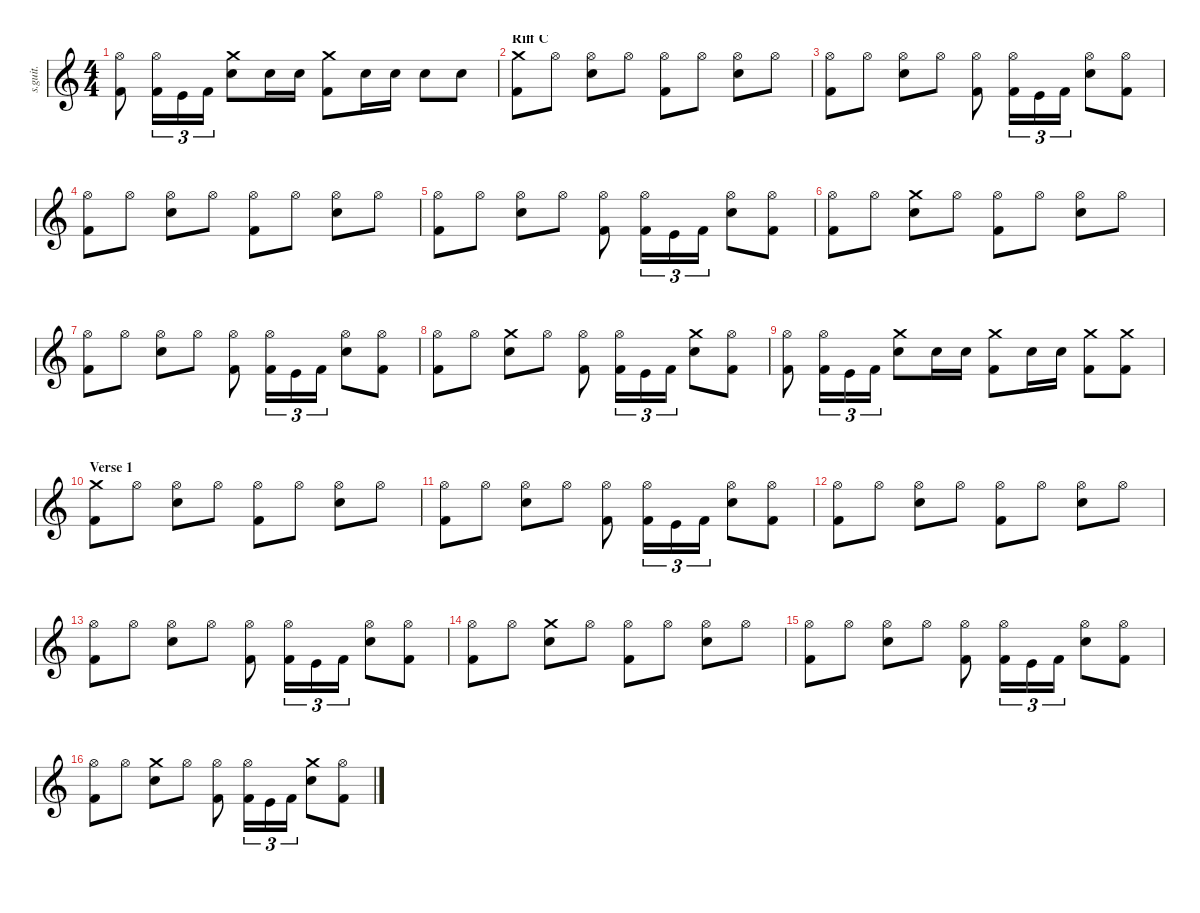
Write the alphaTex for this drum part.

\defaultSystemsLayout 4
\hideDynamics
\bracketExtendMode nobrackets
\track ("Lars Ulrich - Drums" "s.guit.") {instrument percussion}
\staff {score}
\articulation defaults
\ts (4 4)
\tempo (140 hide)
\clef g2
\ks c
("Hi-Hat (open)" "Kick (hit) 2").8{lyrics (0 "") lyrics (1 "") lyrics (2 "") lyrics (3 "") lyrics (4 "") dy f} ("Hi-Hat (open)" "Kick (hit) 2").16{tu (3 2) lyrics (0 "") lyrics (1 "") lyrics (2 "") lyrics (3 "") lyrics (4 "")} "Kick (hit)".16{tu (3 2) lyrics (0 "") lyrics (1 "") lyrics (2 "") lyrics (3 "") lyrics (4 "")} "Kick (hit) 2".16{tu (3 2) lyrics (0 "") lyrics (1 "") lyrics (2 "") lyrics (3 "") lyrics (4 "")} ("Crash medium (hit)" "Snare (hit) 2").8{lyrics (0 "") lyrics (1 "") lyrics (2 "") lyrics (3 "") lyrics (4 "")} "Snare (hit) 2".16{lyrics (0 "") lyrics (1 "") lyrics (2 "") lyrics (3 "") lyrics (4 "")} "Snare (hit) 2".16{lyrics (0 "") lyrics (1 "") lyrics (2 "") lyrics (3 "") lyrics (4 "")} ("Crash medium (hit)" "Kick (hit) 2").8{lyrics (0 "") lyrics (1 "") lyrics (2 "") lyrics (3 "") lyrics (4 "")} "Snare (hit) 2".16{lyrics (0 "") lyrics (1 "") lyrics (2 "") lyrics (3 "") lyrics (4 "")} "Snare (hit) 2".16{lyrics (0 "") lyrics (1 "") lyrics (2 "") lyrics (3 "") lyrics (4 "")} "Snare (hit) 2".8{lyrics (0 "") lyrics (1 "") lyrics (2 "") lyrics (3 "") lyrics (4 "") dy ff} "Snare (hit) 2".8{lyrics (0 "") lyrics (1 "") lyrics (2 "") lyrics (3 "") lyrics (4 "")} |
\section ("" "Riff C")
("Crash medium (hit)" "Kick (hit) 2").8{lyrics (0 "") lyrics (1 "") lyrics (2 "") lyrics (3 "") lyrics (4 "") dy f} "Hi-Hat (open)".8{lyrics (0 "") lyrics (1 "") lyrics (2 "") lyrics (3 "") lyrics (4 "")} ("Hi-Hat (open)" "Snare (hit) 2").8{lyrics (0 "") lyrics (1 "") lyrics (2 "") lyrics (3 "") lyrics (4 "")} "Hi-Hat (open)".8{lyrics (0 "") lyrics (1 "") lyrics (2 "") lyrics (3 "") lyrics (4 "")} ("Hi-Hat (open)" "Kick (hit) 2").8{lyrics (0 "") lyrics (1 "") lyrics (2 "") lyrics (3 "") lyrics (4 "")} "Hi-Hat (open)".8{lyrics (0 "") lyrics (1 "") lyrics (2 "") lyrics (3 "") lyrics (4 "")} ("Hi-Hat (open)" "Snare (hit) 2").8{lyrics (0 "") lyrics (1 "") lyrics (2 "") lyrics (3 "") lyrics (4 "")} "Hi-Hat (open)".8{lyrics (0 "") lyrics (1 "") lyrics (2 "") lyrics (3 "") lyrics (4 "")} |
("Hi-Hat (open)" "Kick (hit) 2").8{lyrics (0 "") lyrics (1 "") lyrics (2 "") lyrics (3 "") lyrics (4 "")} "Hi-Hat (open)".8{lyrics (0 "") lyrics (1 "") lyrics (2 "") lyrics (3 "") lyrics (4 "")} ("Hi-Hat (open)" "Snare (hit) 2").8{lyrics (0 "") lyrics (1 "") lyrics (2 "") lyrics (3 "") lyrics (4 "")} "Hi-Hat (open)".8{lyrics (0 "") lyrics (1 "") lyrics (2 "") lyrics (3 "") lyrics (4 "")} ("Hi-Hat (open)" "Kick (hit) 2").8{lyrics (0 "") lyrics (1 "") lyrics (2 "") lyrics (3 "") lyrics (4 "")} ("Hi-Hat (open)" "Kick (hit) 2").16{tu (3 2) lyrics (0 "") lyrics (1 "") lyrics (2 "") lyrics (3 "") lyrics (4 "")} "Kick (hit)".16{tu (3 2) lyrics (0 "") lyrics (1 "") lyrics (2 "") lyrics (3 "") lyrics (4 "")} "Kick (hit) 2".16{tu (3 2) lyrics (0 "") lyrics (1 "") lyrics (2 "") lyrics (3 "") lyrics (4 "")} ("Hi-Hat (open)" "Snare (hit) 2").8{lyrics (0 "") lyrics (1 "") lyrics (2 "") lyrics (3 "") lyrics (4 "")} ("Hi-Hat (open)" "Kick (hit) 2").8{lyrics (0 "") lyrics (1 "") lyrics (2 "") lyrics (3 "") lyrics (4 "")} |
("Hi-Hat (open)" "Kick (hit) 2").8{lyrics (0 "") lyrics (1 "") lyrics (2 "") lyrics (3 "") lyrics (4 "")} "Hi-Hat (open)".8{lyrics (0 "") lyrics (1 "") lyrics (2 "") lyrics (3 "") lyrics (4 "")} ("Hi-Hat (open)" "Snare (hit) 2").8{lyrics (0 "") lyrics (1 "") lyrics (2 "") lyrics (3 "") lyrics (4 "")} "Hi-Hat (open)".8{lyrics (0 "") lyrics (1 "") lyrics (2 "") lyrics (3 "") lyrics (4 "")} ("Hi-Hat (open)" "Kick (hit) 2").8{lyrics (0 "") lyrics (1 "") lyrics (2 "") lyrics (3 "") lyrics (4 "")} "Hi-Hat (open)".8{lyrics (0 "") lyrics (1 "") lyrics (2 "") lyrics (3 "") lyrics (4 "")} ("Hi-Hat (open)" "Snare (hit) 2").8{lyrics (0 "") lyrics (1 "") lyrics (2 "") lyrics (3 "") lyrics (4 "")} "Hi-Hat (open)".8{lyrics (0 "") lyrics (1 "") lyrics (2 "") lyrics (3 "") lyrics (4 "")} |
("Hi-Hat (open)" "Kick (hit) 2").8{lyrics (0 "") lyrics (1 "") lyrics (2 "") lyrics (3 "") lyrics (4 "")} "Hi-Hat (open)".8{lyrics (0 "") lyrics (1 "") lyrics (2 "") lyrics (3 "") lyrics (4 "")} ("Hi-Hat (open)" "Snare (hit) 2").8{lyrics (0 "") lyrics (1 "") lyrics (2 "") lyrics (3 "") lyrics (4 "")} "Hi-Hat (open)".8{lyrics (0 "") lyrics (1 "") lyrics (2 "") lyrics (3 "") lyrics (4 "")} ("Hi-Hat (open)" "Kick (hit) 2").8{lyrics (0 "") lyrics (1 "") lyrics (2 "") lyrics (3 "") lyrics (4 "")} ("Hi-Hat (open)" "Kick (hit) 2").16{tu (3 2) lyrics (0 "") lyrics (1 "") lyrics (2 "") lyrics (3 "") lyrics (4 "")} "Kick (hit)".16{tu (3 2) lyrics (0 "") lyrics (1 "") lyrics (2 "") lyrics (3 "") lyrics (4 "")} "Kick (hit) 2".16{tu (3 2) lyrics (0 "") lyrics (1 "") lyrics (2 "") lyrics (3 "") lyrics (4 "")} ("Hi-Hat (open)" "Snare (hit) 2").8{lyrics (0 "") lyrics (1 "") lyrics (2 "") lyrics (3 "") lyrics (4 "")} ("Hi-Hat (open)" "Kick (hit) 2").8{lyrics (0 "") lyrics (1 "") lyrics (2 "") lyrics (3 "") lyrics (4 "")} |
("Hi-Hat (open)" "Kick (hit) 2").8{lyrics (0 "") lyrics (1 "") lyrics (2 "") lyrics (3 "") lyrics (4 "")} "Hi-Hat (open)".8{lyrics (0 "") lyrics (1 "") lyrics (2 "") lyrics (3 "") lyrics (4 "")} ("Crash medium (hit)" "Snare (hit) 2").8{lyrics (0 "") lyrics (1 "") lyrics (2 "") lyrics (3 "") lyrics (4 "")} "Hi-Hat (open)".8{lyrics (0 "") lyrics (1 "") lyrics (2 "") lyrics (3 "") lyrics (4 "")} ("Hi-Hat (open)" "Kick (hit) 2").8{lyrics (0 "") lyrics (1 "") lyrics (2 "") lyrics (3 "") lyrics (4 "")} "Hi-Hat (open)".8{lyrics (0 "") lyrics (1 "") lyrics (2 "") lyrics (3 "") lyrics (4 "")} ("Hi-Hat (open)" "Snare (hit) 2").8{lyrics (0 "") lyrics (1 "") lyrics (2 "") lyrics (3 "") lyrics (4 "")} "Hi-Hat (open)".8{lyrics (0 "") lyrics (1 "") lyrics (2 "") lyrics (3 "") lyrics (4 "")} |
("Hi-Hat (open)" "Kick (hit) 2").8{lyrics (0 "") lyrics (1 "") lyrics (2 "") lyrics (3 "") lyrics (4 "")} "Hi-Hat (open)".8{lyrics (0 "") lyrics (1 "") lyrics (2 "") lyrics (3 "") lyrics (4 "")} ("Hi-Hat (open)" "Snare (hit) 2").8{lyrics (0 "") lyrics (1 "") lyrics (2 "") lyrics (3 "") lyrics (4 "")} "Hi-Hat (open)".8{lyrics (0 "") lyrics (1 "") lyrics (2 "") lyrics (3 "") lyrics (4 "")} ("Hi-Hat (open)" "Kick (hit) 2").8{lyrics (0 "") lyrics (1 "") lyrics (2 "") lyrics (3 "") lyrics (4 "")} ("Hi-Hat (open)" "Kick (hit) 2").16{tu (3 2) lyrics (0 "") lyrics (1 "") lyrics (2 "") lyrics (3 "") lyrics (4 "")} "Kick (hit)".16{tu (3 2) lyrics (0 "") lyrics (1 "") lyrics (2 "") lyrics (3 "") lyrics (4 "")} "Kick (hit) 2".16{tu (3 2) lyrics (0 "") lyrics (1 "") lyrics (2 "") lyrics (3 "") lyrics (4 "")} ("Hi-Hat (open)" "Snare (hit) 2").8{lyrics (0 "") lyrics (1 "") lyrics (2 "") lyrics (3 "") lyrics (4 "")} ("Hi-Hat (open)" "Kick (hit) 2").8{lyrics (0 "") lyrics (1 "") lyrics (2 "") lyrics (3 "") lyrics (4 "")} |
("Hi-Hat (open)" "Kick (hit) 2").8{lyrics (0 "") lyrics (1 "") lyrics (2 "") lyrics (3 "") lyrics (4 "")} "Hi-Hat (open)".8{lyrics (0 "") lyrics (1 "") lyrics (2 "") lyrics (3 "") lyrics (4 "")} ("Crash medium (hit)" "Snare (hit) 2").8{lyrics (0 "") lyrics (1 "") lyrics (2 "") lyrics (3 "") lyrics (4 "")} "Hi-Hat (open)".8{lyrics (0 "") lyrics (1 "") lyrics (2 "") lyrics (3 "") lyrics (4 "")} ("Hi-Hat (open)" "Kick (hit) 2").8{lyrics (0 "") lyrics (1 "") lyrics (2 "") lyrics (3 "") lyrics (4 "")} ("Hi-Hat (open)" "Kick (hit) 2").16{tu (3 2) lyrics (0 "") lyrics (1 "") lyrics (2 "") lyrics (3 "") lyrics (4 "")} "Kick (hit)".16{tu (3 2) lyrics (0 "") lyrics (1 "") lyrics (2 "") lyrics (3 "") lyrics (4 "")} "Kick (hit) 2".16{tu (3 2) lyrics (0 "") lyrics (1 "") lyrics (2 "") lyrics (3 "") lyrics (4 "")} ("Crash medium (hit)" "Snare (hit) 2").8{lyrics (0 "") lyrics (1 "") lyrics (2 "") lyrics (3 "") lyrics (4 "")} ("Hi-Hat (open)" "Kick (hit) 2").8{lyrics (0 "") lyrics (1 "") lyrics (2 "") lyrics (3 "") lyrics (4 "")} |
("Hi-Hat (open)" "Kick (hit) 2").8{lyrics (0 "") lyrics (1 "") lyrics (2 "") lyrics (3 "") lyrics (4 "")} ("Hi-Hat (open)" "Kick (hit) 2").16{tu (3 2) lyrics (0 "") lyrics (1 "") lyrics (2 "") lyrics (3 "") lyrics (4 "")} "Kick (hit)".16{tu (3 2) lyrics (0 "") lyrics (1 "") lyrics (2 "") lyrics (3 "") lyrics (4 "")} "Kick (hit) 2".16{tu (3 2) lyrics (0 "") lyrics (1 "") lyrics (2 "") lyrics (3 "") lyrics (4 "")} ("Crash medium (hit)" "Snare (hit) 2").8{lyrics (0 "") lyrics (1 "") lyrics (2 "") lyrics (3 "") lyrics (4 "")} "Snare (hit) 2".16{lyrics (0 "") lyrics (1 "") lyrics (2 "") lyrics (3 "") lyrics (4 "")} "Snare (hit) 2".16{lyrics (0 "") lyrics (1 "") lyrics (2 "") lyrics (3 "") lyrics (4 "")} ("Crash medium (hit)" "Kick (hit) 2").8{lyrics (0 "") lyrics (1 "") lyrics (2 "") lyrics (3 "") lyrics (4 "")} "Snare (hit) 2".16{lyrics (0 "") lyrics (1 "") lyrics (2 "") lyrics (3 "") lyrics (4 "")} "Snare (hit) 2".16{lyrics (0 "") lyrics (1 "") lyrics (2 "") lyrics (3 "") lyrics (4 "")} ("Crash medium (hit)" "Kick (hit) 2").8{lyrics (0 "") lyrics (1 "") lyrics (2 "") lyrics (3 "") lyrics (4 "")} ("Crash medium (hit)" "Kick (hit) 2").8{lyrics (0 "") lyrics (1 "") lyrics (2 "") lyrics (3 "") lyrics (4 "")} |
\section ("" "Verse 1")
("Crash medium (hit)" "Kick (hit) 2").8{lyrics (0 "") lyrics (1 "") lyrics (2 "") lyrics (3 "") lyrics (4 "")} "Hi-Hat (open)".8{lyrics (0 "") lyrics (1 "") lyrics (2 "") lyrics (3 "") lyrics (4 "")} ("Hi-Hat (open)" "Snare (hit) 2").8{lyrics (0 "") lyrics (1 "") lyrics (2 "") lyrics (3 "") lyrics (4 "")} "Hi-Hat (open)".8{lyrics (0 "") lyrics (1 "") lyrics (2 "") lyrics (3 "") lyrics (4 "")} ("Hi-Hat (open)" "Kick (hit) 2").8{lyrics (0 "") lyrics (1 "") lyrics (2 "") lyrics (3 "") lyrics (4 "")} "Hi-Hat (open)".8{lyrics (0 "") lyrics (1 "") lyrics (2 "") lyrics (3 "") lyrics (4 "")} ("Hi-Hat (open)" "Snare (hit) 2").8{lyrics (0 "") lyrics (1 "") lyrics (2 "") lyrics (3 "") lyrics (4 "")} "Hi-Hat (open)".8{lyrics (0 "") lyrics (1 "") lyrics (2 "") lyrics (3 "") lyrics (4 "")} |
("Hi-Hat (open)" "Kick (hit) 2").8{lyrics (0 "") lyrics (1 "") lyrics (2 "") lyrics (3 "") lyrics (4 "")} "Hi-Hat (open)".8{lyrics (0 "") lyrics (1 "") lyrics (2 "") lyrics (3 "") lyrics (4 "")} ("Hi-Hat (open)" "Snare (hit) 2").8{lyrics (0 "") lyrics (1 "") lyrics (2 "") lyrics (3 "") lyrics (4 "")} "Hi-Hat (open)".8{lyrics (0 "") lyrics (1 "") lyrics (2 "") lyrics (3 "") lyrics (4 "")} ("Hi-Hat (open)" "Kick (hit) 2").8{lyrics (0 "") lyrics (1 "") lyrics (2 "") lyrics (3 "") lyrics (4 "")} ("Hi-Hat (open)" "Kick (hit) 2").16{tu (3 2) lyrics (0 "") lyrics (1 "") lyrics (2 "") lyrics (3 "") lyrics (4 "")} "Kick (hit)".16{tu (3 2) lyrics (0 "") lyrics (1 "") lyrics (2 "") lyrics (3 "") lyrics (4 "")} "Kick (hit) 2".16{tu (3 2) lyrics (0 "") lyrics (1 "") lyrics (2 "") lyrics (3 "") lyrics (4 "")} ("Hi-Hat (open)" "Snare (hit) 2").8{lyrics (0 "") lyrics (1 "") lyrics (2 "") lyrics (3 "") lyrics (4 "")} ("Hi-Hat (open)" "Kick (hit) 2").8{lyrics (0 "") lyrics (1 "") lyrics (2 "") lyrics (3 "") lyrics (4 "")} |
("Hi-Hat (open)" "Kick (hit) 2").8{lyrics (0 "") lyrics (1 "") lyrics (2 "") lyrics (3 "") lyrics (4 "")} "Hi-Hat (open)".8{lyrics (0 "") lyrics (1 "") lyrics (2 "") lyrics (3 "") lyrics (4 "")} ("Hi-Hat (open)" "Snare (hit) 2").8{lyrics (0 "") lyrics (1 "") lyrics (2 "") lyrics (3 "") lyrics (4 "")} "Hi-Hat (open)".8{lyrics (0 "") lyrics (1 "") lyrics (2 "") lyrics (3 "") lyrics (4 "")} ("Hi-Hat (open)" "Kick (hit) 2").8{lyrics (0 "") lyrics (1 "") lyrics (2 "") lyrics (3 "") lyrics (4 "")} "Hi-Hat (open)".8{lyrics (0 "") lyrics (1 "") lyrics (2 "") lyrics (3 "") lyrics (4 "")} ("Hi-Hat (open)" "Snare (hit) 2").8{lyrics (0 "") lyrics (1 "") lyrics (2 "") lyrics (3 "") lyrics (4 "")} "Hi-Hat (open)".8{lyrics (0 "") lyrics (1 "") lyrics (2 "") lyrics (3 "") lyrics (4 "")} |
("Hi-Hat (open)" "Kick (hit) 2").8{lyrics (0 "") lyrics (1 "") lyrics (2 "") lyrics (3 "") lyrics (4 "")} "Hi-Hat (open)".8{lyrics (0 "") lyrics (1 "") lyrics (2 "") lyrics (3 "") lyrics (4 "")} ("Hi-Hat (open)" "Snare (hit) 2").8{lyrics (0 "") lyrics (1 "") lyrics (2 "") lyrics (3 "") lyrics (4 "")} "Hi-Hat (open)".8{lyrics (0 "") lyrics (1 "") lyrics (2 "") lyrics (3 "") lyrics (4 "")} ("Hi-Hat (open)" "Kick (hit) 2").8{lyrics (0 "") lyrics (1 "") lyrics (2 "") lyrics (3 "") lyrics (4 "")} ("Hi-Hat (open)" "Kick (hit) 2").16{tu (3 2) lyrics (0 "") lyrics (1 "") lyrics (2 "") lyrics (3 "") lyrics (4 "")} "Kick (hit)".16{tu (3 2) lyrics (0 "") lyrics (1 "") lyrics (2 "") lyrics (3 "") lyrics (4 "")} "Kick (hit) 2".16{tu (3 2) lyrics (0 "") lyrics (1 "") lyrics (2 "") lyrics (3 "") lyrics (4 "")} ("Hi-Hat (open)" "Snare (hit) 2").8{lyrics (0 "") lyrics (1 "") lyrics (2 "") lyrics (3 "") lyrics (4 "")} ("Hi-Hat (open)" "Kick (hit) 2").8{lyrics (0 "") lyrics (1 "") lyrics (2 "") lyrics (3 "") lyrics (4 "")} |
("Hi-Hat (open)" "Kick (hit) 2").8{lyrics (0 "") lyrics (1 "") lyrics (2 "") lyrics (3 "") lyrics (4 "")} "Hi-Hat (open)".8{lyrics (0 "") lyrics (1 "") lyrics (2 "") lyrics (3 "") lyrics (4 "")} ("Crash medium (hit)" "Snare (hit) 2").8{lyrics (0 "") lyrics (1 "") lyrics (2 "") lyrics (3 "") lyrics (4 "")} "Hi-Hat (open)".8{lyrics (0 "") lyrics (1 "") lyrics (2 "") lyrics (3 "") lyrics (4 "")} ("Hi-Hat (open)" "Kick (hit) 2").8{lyrics (0 "") lyrics (1 "") lyrics (2 "") lyrics (3 "") lyrics (4 "")} "Hi-Hat (open)".8{lyrics (0 "") lyrics (1 "") lyrics (2 "") lyrics (3 "") lyrics (4 "")} ("Hi-Hat (open)" "Snare (hit) 2").8{lyrics (0 "") lyrics (1 "") lyrics (2 "") lyrics (3 "") lyrics (4 "")} "Hi-Hat (open)".8{lyrics (0 "") lyrics (1 "") lyrics (2 "") lyrics (3 "") lyrics (4 "")} |
("Hi-Hat (open)" "Kick (hit) 2").8{lyrics (0 "") lyrics (1 "") lyrics (2 "") lyrics (3 "") lyrics (4 "")} "Hi-Hat (open)".8{lyrics (0 "") lyrics (1 "") lyrics (2 "") lyrics (3 "") lyrics (4 "")} ("Hi-Hat (open)" "Snare (hit) 2").8{lyrics (0 "") lyrics (1 "") lyrics (2 "") lyrics (3 "") lyrics (4 "")} "Hi-Hat (open)".8{lyrics (0 "") lyrics (1 "") lyrics (2 "") lyrics (3 "") lyrics (4 "")} ("Hi-Hat (open)" "Kick (hit) 2").8{lyrics (0 "") lyrics (1 "") lyrics (2 "") lyrics (3 "") lyrics (4 "")} ("Hi-Hat (open)" "Kick (hit) 2").16{tu (3 2) lyrics (0 "") lyrics (1 "") lyrics (2 "") lyrics (3 "") lyrics (4 "")} "Kick (hit)".16{tu (3 2) lyrics (0 "") lyrics (1 "") lyrics (2 "") lyrics (3 "") lyrics (4 "")} "Kick (hit) 2".16{tu (3 2) lyrics (0 "") lyrics (1 "") lyrics (2 "") lyrics (3 "") lyrics (4 "")} ("Hi-Hat (open)" "Snare (hit) 2").8{lyrics (0 "") lyrics (1 "") lyrics (2 "") lyrics (3 "") lyrics (4 "")} ("Hi-Hat (open)" "Kick (hit) 2").8{lyrics (0 "") lyrics (1 "") lyrics (2 "") lyrics (3 "") lyrics (4 "")} |
("Hi-Hat (open)" "Kick (hit) 2").8{lyrics (0 "") lyrics (1 "") lyrics (2 "") lyrics (3 "") lyrics (4 "")} "Hi-Hat (open)".8{lyrics (0 "") lyrics (1 "") lyrics (2 "") lyrics (3 "") lyrics (4 "")} ("Crash medium (hit)" "Snare (hit) 2").8{lyrics (0 "") lyrics (1 "") lyrics (2 "") lyrics (3 "") lyrics (4 "")} "Hi-Hat (open)".8{lyrics (0 "") lyrics (1 "") lyrics (2 "") lyrics (3 "") lyrics (4 "")} ("Hi-Hat (open)" "Kick (hit) 2").8{lyrics (0 "") lyrics (1 "") lyrics (2 "") lyrics (3 "") lyrics (4 "")} ("Hi-Hat (open)" "Kick (hit) 2").16{tu (3 2) lyrics (0 "") lyrics (1 "") lyrics (2 "") lyrics (3 "") lyrics (4 "")} "Kick (hit)".16{tu (3 2) lyrics (0 "") lyrics (1 "") lyrics (2 "") lyrics (3 "") lyrics (4 "")} "Kick (hit) 2".16{tu (3 2) lyrics (0 "") lyrics (1 "") lyrics (2 "") lyrics (3 "") lyrics (4 "")} ("Crash medium (hit)" "Snare (hit) 2").8{lyrics (0 "") lyrics (1 "") lyrics (2 "") lyrics (3 "") lyrics (4 "")} ("Hi-Hat (open)" "Kick (hit) 2").8{lyrics (0 "") lyrics (1 "") lyrics (2 "") lyrics (3 "") lyrics (4 "")}
